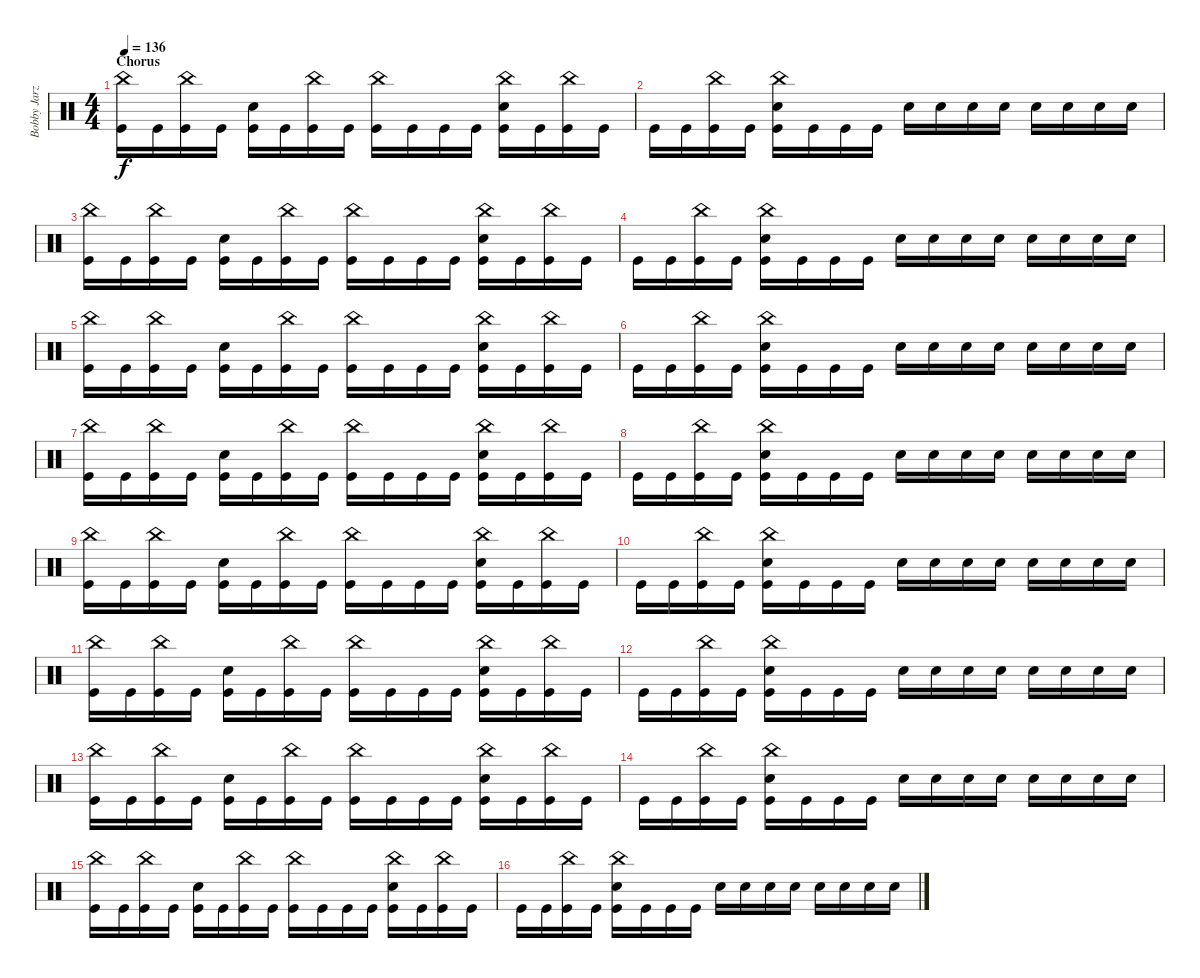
\track ("Bobby Jarzombek" "Bobby Jarz") {instrument percussion}
\staff {score}
\articulation defaults
\ts (4 4)
\section ("" "Chorus")
\tempo 136
\clef neutral
\ks c
("China (hit)" "Kick (hit)").16{dy f} "Kick (hit)".16 ("China (hit)" "Kick (hit)").16 "Kick (hit)".16 ("Electric Snare (hit)" "Kick (hit)").16 "Kick (hit)".16 ("China (hit)" "Kick (hit)").16 "Kick (hit)".16 ("China (hit)" "Kick (hit)").16 "Kick (hit)".16 "Kick (hit)".16 "Kick (hit)".16 ("China (hit)" "Electric Snare (hit)" "Kick (hit)").16 "Kick (hit)".16 ("China (hit)" "Kick (hit)").16 "Kick (hit)".16 |
"Kick (hit)".16 "Kick (hit)".16 ("China (hit)" "Kick (hit)").16 "Kick (hit)".16 ("China (hit)" "Electric Snare (hit)" "Kick (hit)").16 "Kick (hit)".16 "Kick (hit)".16 "Kick (hit)".16 "Electric Snare (hit)".16 "Electric Snare (hit)".16 "Electric Snare (hit)".16 "Electric Snare (hit)".16 "Electric Snare (hit)".16 "Electric Snare (hit)".16 "Electric Snare (hit)".16 "Electric Snare (hit)".16 |
("China (hit)" "Kick (hit)").16 "Kick (hit)".16 ("China (hit)" "Kick (hit)").16 "Kick (hit)".16 ("Electric Snare (hit)" "Kick (hit)").16 "Kick (hit)".16 ("China (hit)" "Kick (hit)").16 "Kick (hit)".16 ("China (hit)" "Kick (hit)").16 "Kick (hit)".16 "Kick (hit)".16 "Kick (hit)".16 ("China (hit)" "Electric Snare (hit)" "Kick (hit)").16 "Kick (hit)".16 ("China (hit)" "Kick (hit)").16 "Kick (hit)".16 |
"Kick (hit)".16 "Kick (hit)".16 ("China (hit)" "Kick (hit)").16 "Kick (hit)".16 ("China (hit)" "Electric Snare (hit)" "Kick (hit)").16 "Kick (hit)".16 "Kick (hit)".16 "Kick (hit)".16 "Electric Snare (hit)".16 "Electric Snare (hit)".16 "Electric Snare (hit)".16 "Electric Snare (hit)".16 "Electric Snare (hit)".16 "Electric Snare (hit)".16 "Electric Snare (hit)".16 "Electric Snare (hit)".16 |
("China (hit)" "Kick (hit)").16 "Kick (hit)".16 ("China (hit)" "Kick (hit)").16 "Kick (hit)".16 ("Electric Snare (hit)" "Kick (hit)").16 "Kick (hit)".16 ("China (hit)" "Kick (hit)").16 "Kick (hit)".16 ("China (hit)" "Kick (hit)").16 "Kick (hit)".16 "Kick (hit)".16 "Kick (hit)".16 ("China (hit)" "Electric Snare (hit)" "Kick (hit)").16 "Kick (hit)".16 ("China (hit)" "Kick (hit)").16 "Kick (hit)".16 |
"Kick (hit)".16 "Kick (hit)".16 ("China (hit)" "Kick (hit)").16 "Kick (hit)".16 ("China (hit)" "Electric Snare (hit)" "Kick (hit)").16 "Kick (hit)".16 "Kick (hit)".16 "Kick (hit)".16 "Electric Snare (hit)".16 "Electric Snare (hit)".16 "Electric Snare (hit)".16 "Electric Snare (hit)".16 "Electric Snare (hit)".16 "Electric Snare (hit)".16 "Electric Snare (hit)".16 "Electric Snare (hit)".16 |
("China (hit)" "Kick (hit)").16 "Kick (hit)".16 ("China (hit)" "Kick (hit)").16 "Kick (hit)".16 ("Electric Snare (hit)" "Kick (hit)").16 "Kick (hit)".16 ("China (hit)" "Kick (hit)").16 "Kick (hit)".16 ("China (hit)" "Kick (hit)").16 "Kick (hit)".16 "Kick (hit)".16 "Kick (hit)".16 ("China (hit)" "Electric Snare (hit)" "Kick (hit)").16 "Kick (hit)".16 ("China (hit)" "Kick (hit)").16 "Kick (hit)".16 |
"Kick (hit)".16 "Kick (hit)".16 ("China (hit)" "Kick (hit)").16 "Kick (hit)".16 ("China (hit)" "Electric Snare (hit)" "Kick (hit)").16 "Kick (hit)".16 "Kick (hit)".16 "Kick (hit)".16 "Electric Snare (hit)".16 "Electric Snare (hit)".16 "Electric Snare (hit)".16 "Electric Snare (hit)".16 "Electric Snare (hit)".16 "Electric Snare (hit)".16 "Electric Snare (hit)".16 "Electric Snare (hit)".16 |
("China (hit)" "Kick (hit)").16 "Kick (hit)".16 ("China (hit)" "Kick (hit)").16 "Kick (hit)".16 ("Electric Snare (hit)" "Kick (hit)").16 "Kick (hit)".16 ("China (hit)" "Kick (hit)").16 "Kick (hit)".16 ("China (hit)" "Kick (hit)").16 "Kick (hit)".16 "Kick (hit)".16 "Kick (hit)".16 ("China (hit)" "Electric Snare (hit)" "Kick (hit)").16 "Kick (hit)".16 ("China (hit)" "Kick (hit)").16 "Kick (hit)".16 |
"Kick (hit)".16 "Kick (hit)".16 ("China (hit)" "Kick (hit)").16 "Kick (hit)".16 ("China (hit)" "Electric Snare (hit)" "Kick (hit)").16 "Kick (hit)".16 "Kick (hit)".16 "Kick (hit)".16 "Electric Snare (hit)".16 "Electric Snare (hit)".16 "Electric Snare (hit)".16 "Electric Snare (hit)".16 "Electric Snare (hit)".16 "Electric Snare (hit)".16 "Electric Snare (hit)".16 "Electric Snare (hit)".16 |
("China (hit)" "Kick (hit)").16 "Kick (hit)".16 ("China (hit)" "Kick (hit)").16 "Kick (hit)".16 ("Electric Snare (hit)" "Kick (hit)").16 "Kick (hit)".16 ("China (hit)" "Kick (hit)").16 "Kick (hit)".16 ("China (hit)" "Kick (hit)").16 "Kick (hit)".16 "Kick (hit)".16 "Kick (hit)".16 ("China (hit)" "Electric Snare (hit)" "Kick (hit)").16 "Kick (hit)".16 ("China (hit)" "Kick (hit)").16 "Kick (hit)".16 |
"Kick (hit)".16 "Kick (hit)".16 ("China (hit)" "Kick (hit)").16 "Kick (hit)".16 ("China (hit)" "Electric Snare (hit)" "Kick (hit)").16 "Kick (hit)".16 "Kick (hit)".16 "Kick (hit)".16 "Electric Snare (hit)".16 "Electric Snare (hit)".16 "Electric Snare (hit)".16 "Electric Snare (hit)".16 "Electric Snare (hit)".16 "Electric Snare (hit)".16 "Electric Snare (hit)".16 "Electric Snare (hit)".16 |
("China (hit)" "Kick (hit)").16 "Kick (hit)".16 ("China (hit)" "Kick (hit)").16 "Kick (hit)".16 ("Electric Snare (hit)" "Kick (hit)").16 "Kick (hit)".16 ("China (hit)" "Kick (hit)").16 "Kick (hit)".16 ("China (hit)" "Kick (hit)").16 "Kick (hit)".16 "Kick (hit)".16 "Kick (hit)".16 ("China (hit)" "Electric Snare (hit)" "Kick (hit)").16 "Kick (hit)".16 ("China (hit)" "Kick (hit)").16 "Kick (hit)".16 |
"Kick (hit)".16 "Kick (hit)".16 ("China (hit)" "Kick (hit)").16 "Kick (hit)".16 ("China (hit)" "Electric Snare (hit)" "Kick (hit)").16 "Kick (hit)".16 "Kick (hit)".16 "Kick (hit)".16 "Electric Snare (hit)".16 "Electric Snare (hit)".16 "Electric Snare (hit)".16 "Electric Snare (hit)".16 "Electric Snare (hit)".16 "Electric Snare (hit)".16 "Electric Snare (hit)".16 "Electric Snare (hit)".16 |
("China (hit)" "Kick (hit)").16 "Kick (hit)".16 ("China (hit)" "Kick (hit)").16 "Kick (hit)".16 ("Electric Snare (hit)" "Kick (hit)").16 "Kick (hit)".16 ("China (hit)" "Kick (hit)").16 "Kick (hit)".16 ("China (hit)" "Kick (hit)").16 "Kick (hit)".16 "Kick (hit)".16 "Kick (hit)".16 ("China (hit)" "Electric Snare (hit)" "Kick (hit)").16 "Kick (hit)".16 ("China (hit)" "Kick (hit)").16 "Kick (hit)".16 |
"Kick (hit)".16 "Kick (hit)".16 ("China (hit)" "Kick (hit)").16 "Kick (hit)".16 ("China (hit)" "Electric Snare (hit)" "Kick (hit)").16 "Kick (hit)".16 "Kick (hit)".16 "Kick (hit)".16 "Electric Snare (hit)".16 "Electric Snare (hit)".16 "Electric Snare (hit)".16 "Electric Snare (hit)".16 "Electric Snare (hit)".16 "Electric Snare (hit)".16 "Electric Snare (hit)".16 "Electric Snare (hit)".16
